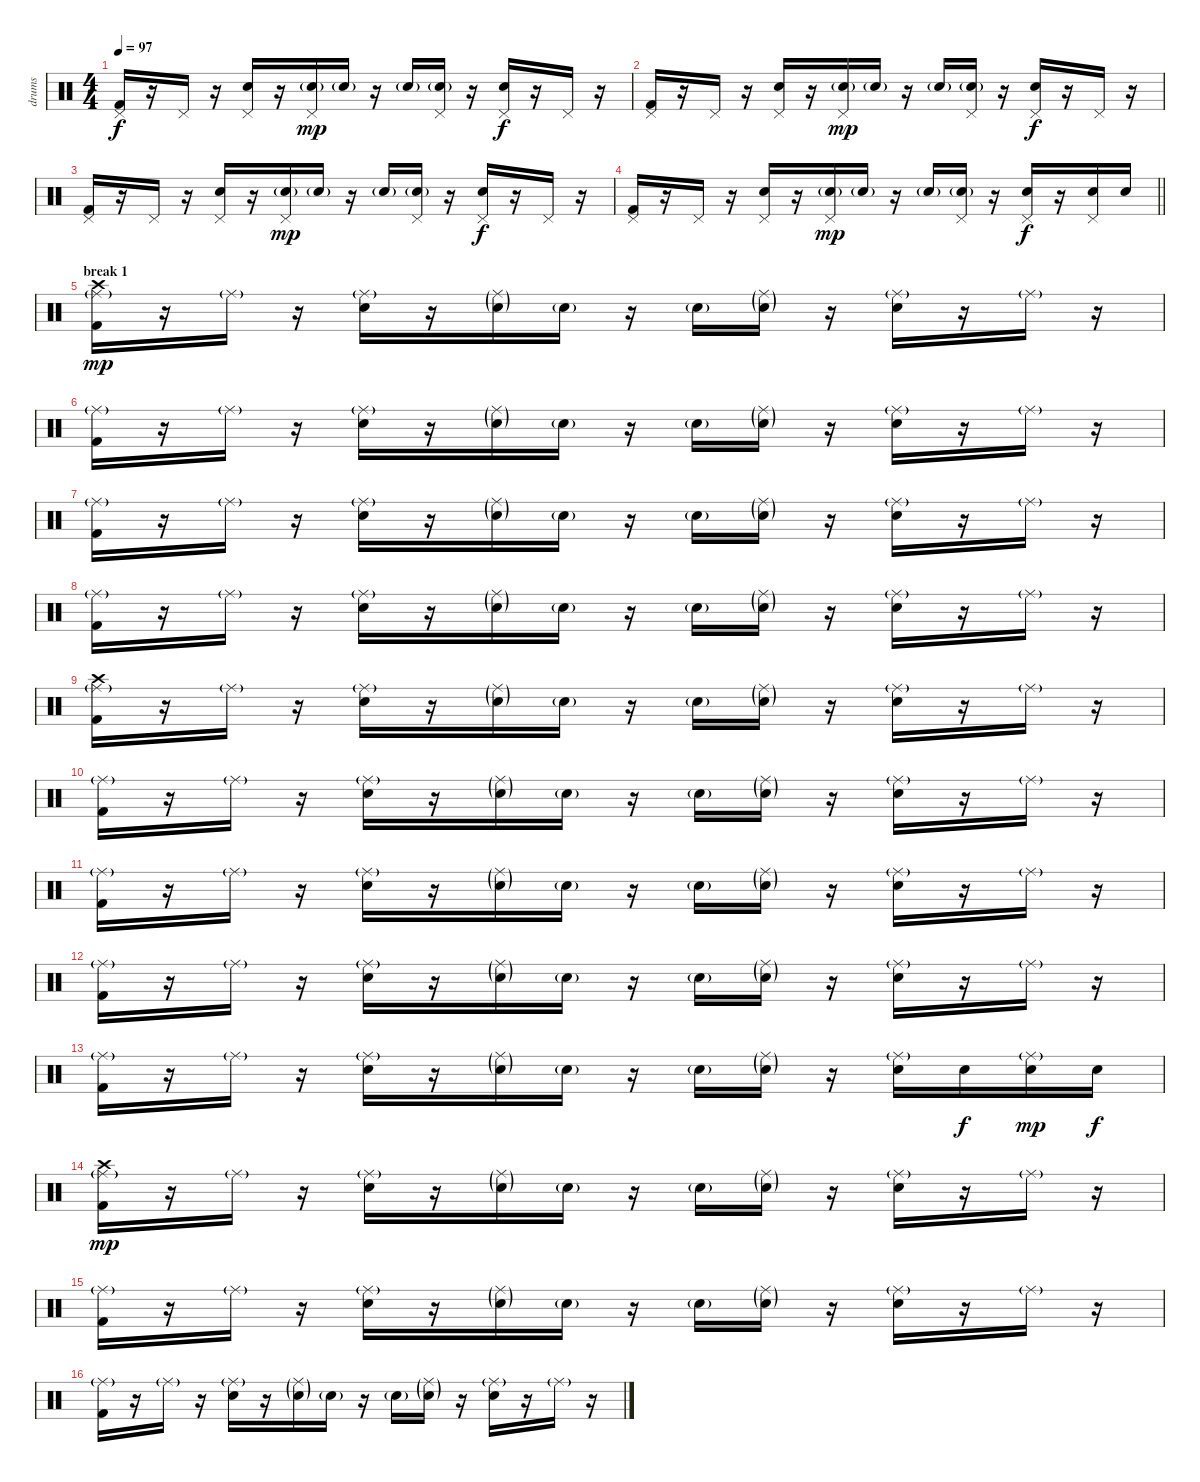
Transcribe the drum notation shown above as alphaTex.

\track ("drums" "drums") {instrument percussion}
\staff {score}
\articulation defaults
\ts (4 4)
\tempo 97
\clef neutral
\ks c
("Kick (hit) 2" "Pedal Hi-Hat (hit)").16{dy f} r.16 "Pedal Hi-Hat (hit)".16 r.16 ("Electric Snare (hit)" "Pedal Hi-Hat (hit)").16 r.16 ("Electric Snare (hit)"{g} "Pedal Hi-Hat (hit)").16{dy mp} "Electric Snare (hit)"{g}.16 r.16 "Electric Snare (hit)"{g}.16 ("Electric Snare (hit)"{g} "Pedal Hi-Hat (hit)").16 r.16 ("Electric Snare (hit)" "Pedal Hi-Hat (hit)").16{dy f} r.16 "Pedal Hi-Hat (hit)".16 r.16 |
("Kick (hit) 2" "Pedal Hi-Hat (hit)").16 r.16 "Pedal Hi-Hat (hit)".16 r.16 ("Electric Snare (hit)" "Pedal Hi-Hat (hit)").16 r.16 ("Electric Snare (hit)"{g} "Pedal Hi-Hat (hit)").16{dy mp} "Electric Snare (hit)"{g}.16 r.16 "Electric Snare (hit)"{g}.16 ("Electric Snare (hit)"{g} "Pedal Hi-Hat (hit)").16 r.16 ("Electric Snare (hit)" "Pedal Hi-Hat (hit)").16{dy f} r.16 "Pedal Hi-Hat (hit)".16 r.16 |
("Kick (hit) 2" "Pedal Hi-Hat (hit)").16 r.16 "Pedal Hi-Hat (hit)".16 r.16 ("Electric Snare (hit)" "Pedal Hi-Hat (hit)").16 r.16 ("Electric Snare (hit)"{g} "Pedal Hi-Hat (hit)").16{dy mp} "Electric Snare (hit)"{g}.16 r.16 "Electric Snare (hit)"{g}.16 ("Electric Snare (hit)"{g} "Pedal Hi-Hat (hit)").16 r.16 ("Electric Snare (hit)" "Pedal Hi-Hat (hit)").16{dy f} r.16 "Pedal Hi-Hat (hit)".16 r.16 |
\barLineRight lightlight
("Kick (hit) 2" "Pedal Hi-Hat (hit)").16 r.16 "Pedal Hi-Hat (hit)".16 r.16 ("Electric Snare (hit)" "Pedal Hi-Hat (hit)").16 r.16 ("Electric Snare (hit)"{g} "Pedal Hi-Hat (hit)").16{dy mp} "Electric Snare (hit)"{g}.16 r.16 "Electric Snare (hit)"{g}.16 ("Electric Snare (hit)"{g} "Pedal Hi-Hat (hit)").16 r.16 ("Electric Snare (hit)" "Pedal Hi-Hat (hit)").16{dy f} r.16 ("Electric Snare (hit)" "Pedal Hi-Hat (hit)").16 "Electric Snare (hit)".16 |
\section ("" "break 1")
("Kick (hit) 2" "Ride (middle)"{g} "Crash high (hit)").16{dy mp} r.16 "Ride (middle)"{g}.16 r.16 ("Electric Snare (hit)" "Ride (middle)"{g}).16 r.16 ("Electric Snare (hit)"{g} "Ride (middle)"{g}).16 "Electric Snare (hit)"{g}.16 r.16 "Electric Snare (hit)"{g}.16 ("Electric Snare (hit)"{g} "Ride (middle)"{g}).16 r.16 ("Electric Snare (hit)" "Ride (middle)"{g}).16 r.16 "Ride (middle)"{g}.16 r.16 |
("Kick (hit) 2" "Ride (middle)"{g}).16 r.16 "Ride (middle)"{g}.16 r.16 ("Electric Snare (hit)" "Ride (middle)"{g}).16 r.16 ("Electric Snare (hit)"{g} "Ride (middle)"{g}).16 "Electric Snare (hit)"{g}.16 r.16 "Electric Snare (hit)"{g}.16 ("Electric Snare (hit)"{g} "Ride (middle)"{g}).16 r.16 ("Electric Snare (hit)" "Ride (middle)"{g}).16 r.16 "Ride (middle)"{g}.16 r.16 |
("Kick (hit) 2" "Ride (middle)"{g}).16 r.16 "Ride (middle)"{g}.16 r.16 ("Electric Snare (hit)" "Ride (middle)"{g}).16 r.16 ("Electric Snare (hit)"{g} "Ride (middle)"{g}).16 "Electric Snare (hit)"{g}.16 r.16 "Electric Snare (hit)"{g}.16 ("Electric Snare (hit)"{g} "Ride (middle)"{g}).16 r.16 ("Electric Snare (hit)" "Ride (middle)"{g}).16 r.16 "Ride (middle)"{g}.16 r.16 |
("Kick (hit) 2" "Ride (middle)"{g}).16 r.16 "Ride (middle)"{g}.16 r.16 ("Electric Snare (hit)" "Ride (middle)"{g}).16 r.16 ("Electric Snare (hit)"{g} "Ride (middle)"{g}).16 "Electric Snare (hit)"{g}.16 r.16 "Electric Snare (hit)"{g}.16 ("Electric Snare (hit)"{g} "Ride (middle)"{g}).16 r.16 ("Electric Snare (hit)" "Ride (middle)"{g}).16 r.16 "Ride (middle)"{g}.16 r.16 |
("Kick (hit) 2" "Ride (middle)"{g} "Crash high (hit)").16 r.16 "Ride (middle)"{g}.16 r.16 ("Electric Snare (hit)" "Ride (middle)"{g}).16 r.16 ("Electric Snare (hit)"{g} "Ride (middle)"{g}).16 "Electric Snare (hit)"{g}.16 r.16 "Electric Snare (hit)"{g}.16 ("Electric Snare (hit)"{g} "Ride (middle)"{g}).16 r.16 ("Electric Snare (hit)" "Ride (middle)"{g}).16 r.16 "Ride (middle)"{g}.16 r.16 |
("Kick (hit) 2" "Ride (middle)"{g}).16 r.16 "Ride (middle)"{g}.16 r.16 ("Electric Snare (hit)" "Ride (middle)"{g}).16 r.16 ("Electric Snare (hit)"{g} "Ride (middle)"{g}).16 "Electric Snare (hit)"{g}.16 r.16 "Electric Snare (hit)"{g}.16 ("Electric Snare (hit)"{g} "Ride (middle)"{g}).16 r.16 ("Electric Snare (hit)" "Ride (middle)"{g}).16 r.16 "Ride (middle)"{g}.16 r.16 |
("Kick (hit) 2" "Ride (middle)"{g}).16 r.16 "Ride (middle)"{g}.16 r.16 ("Electric Snare (hit)" "Ride (middle)"{g}).16 r.16 ("Electric Snare (hit)"{g} "Ride (middle)"{g}).16 "Electric Snare (hit)"{g}.16 r.16 "Electric Snare (hit)"{g}.16 ("Electric Snare (hit)"{g} "Ride (middle)"{g}).16 r.16 ("Electric Snare (hit)" "Ride (middle)"{g}).16 r.16 "Ride (middle)"{g}.16 r.16 |
("Kick (hit) 2" "Ride (middle)"{g}).16 r.16 "Ride (middle)"{g}.16 r.16 ("Electric Snare (hit)" "Ride (middle)"{g}).16 r.16 ("Electric Snare (hit)"{g} "Ride (middle)"{g}).16 "Electric Snare (hit)"{g}.16 r.16 "Electric Snare (hit)"{g}.16 ("Electric Snare (hit)"{g} "Ride (middle)"{g}).16 r.16 ("Electric Snare (hit)" "Ride (middle)"{g}).16 r.16 "Ride (middle)"{g}.16 r.16 |
("Kick (hit) 2" "Ride (middle)"{g}).16 r.16 "Ride (middle)"{g}.16 r.16 ("Electric Snare (hit)" "Ride (middle)"{g}).16 r.16 ("Electric Snare (hit)"{g} "Ride (middle)"{g}).16 "Electric Snare (hit)"{g}.16 r.16 "Electric Snare (hit)"{g}.16 ("Electric Snare (hit)"{g} "Ride (middle)"{g}).16 r.16 ("Electric Snare (hit)" "Ride (middle)"{g}).16 "Electric Snare (hit)".16{dy f} ("Electric Snare (hit)" "Ride (middle)"{g}).16{dy mp} "Electric Snare (hit)".16{dy f} |
("Kick (hit) 2" "Ride (middle)"{g} "Crash high (hit)").16{dy mp} r.16 "Ride (middle)"{g}.16 r.16 ("Electric Snare (hit)" "Ride (middle)"{g}).16 r.16 ("Electric Snare (hit)"{g} "Ride (middle)"{g}).16 "Electric Snare (hit)"{g}.16 r.16 "Electric Snare (hit)"{g}.16 ("Electric Snare (hit)"{g} "Ride (middle)"{g}).16 r.16 ("Electric Snare (hit)" "Ride (middle)"{g}).16 r.16 "Ride (middle)"{g}.16 r.16 |
("Kick (hit) 2" "Ride (middle)"{g}).16 r.16 "Ride (middle)"{g}.16 r.16 ("Electric Snare (hit)" "Ride (middle)"{g}).16 r.16 ("Electric Snare (hit)"{g} "Ride (middle)"{g}).16 "Electric Snare (hit)"{g}.16 r.16 "Electric Snare (hit)"{g}.16 ("Electric Snare (hit)"{g} "Ride (middle)"{g}).16 r.16 ("Electric Snare (hit)" "Ride (middle)"{g}).16 r.16 "Ride (middle)"{g}.16 r.16 |
("Kick (hit) 2" "Ride (middle)"{g}).16 r.16 "Ride (middle)"{g}.16 r.16 ("Electric Snare (hit)" "Ride (middle)"{g}).16 r.16 ("Electric Snare (hit)"{g} "Ride (middle)"{g}).16 "Electric Snare (hit)"{g}.16 r.16 "Electric Snare (hit)"{g}.16 ("Electric Snare (hit)"{g} "Ride (middle)"{g}).16 r.16 ("Electric Snare (hit)" "Ride (middle)"{g}).16 r.16 "Ride (middle)"{g}.16 r.16
